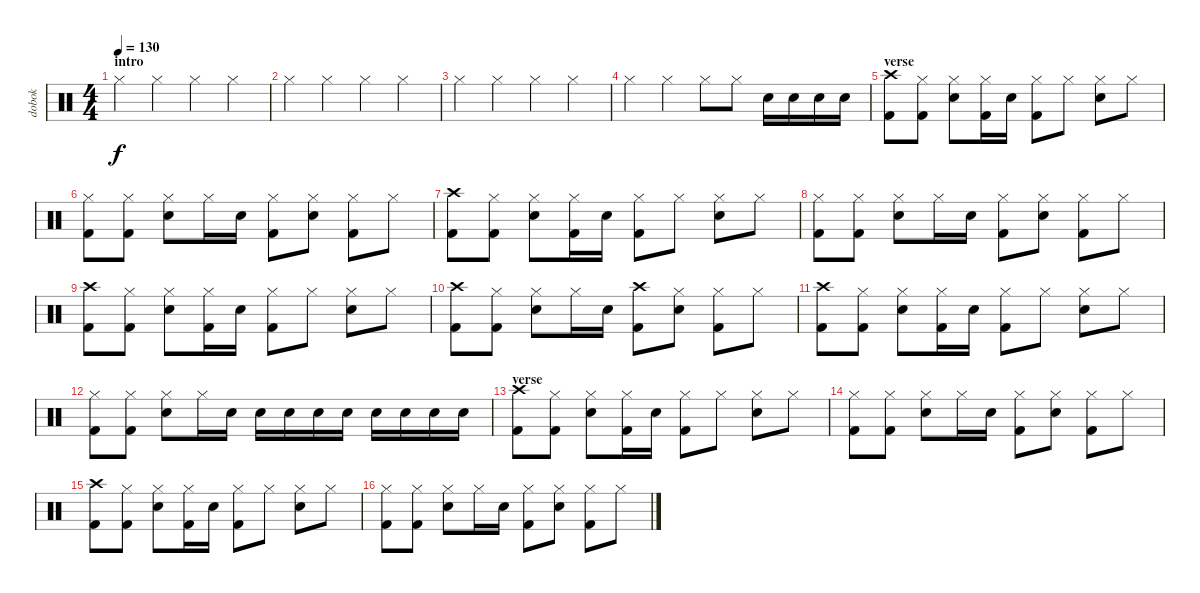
\track ("dobok" "dobok") {instrument percussion}
\staff {score}
\articulation defaults
\ts (4 4)
\section ("" "intro")
\tempo 130
\clef neutral
\ks c "Hi-Hat (closed)".4{dy f} "Hi-Hat (closed)".4 "Hi-Hat (closed)".4 "Hi-Hat (closed)".4
|
"Hi-Hat (closed)".4 "Hi-Hat (closed)".4 "Hi-Hat (closed)".4 "Hi-Hat (closed)".4 |
"Hi-Hat (closed)".4 "Hi-Hat (closed)".4 "Hi-Hat (closed)".4 "Hi-Hat (closed)".4 |
"Hi-Hat (closed)".4 "Hi-Hat (closed)".4 "Hi-Hat (closed)".8 "Hi-Hat (closed)".8 "Snare (hit) 2".16 "Snare (hit) 2".16 "Snare (hit) 2".16 "Snare (hit) 2".16 |
\section ("" "verse")
("Crash high (hit)" "Kick (hit) 2").8 ("Hi-Hat (closed)" "Kick (hit) 2").8 ("Hi-Hat (closed)" "Snare (hit) 2").8 ("Hi-Hat (closed)" "Kick (hit) 2").16 "Snare (hit) 2".16 ("Hi-Hat (closed)" "Kick (hit) 2").8 "Hi-Hat (closed)".8 ("Hi-Hat (closed)" "Snare (hit) 2").8 "Hi-Hat (closed)".8 |
("Hi-Hat (closed)" "Kick (hit) 2").8 ("Hi-Hat (closed)" "Kick (hit) 2").8 ("Hi-Hat (closed)" "Snare (hit) 2").8 "Hi-Hat (closed)".16 "Snare (hit) 2".16 ("Hi-Hat (closed)" "Kick (hit) 2").8 ("Hi-Hat (closed)" "Snare (hit) 2").8 ("Hi-Hat (closed)" "Kick (hit) 2").8 "Hi-Hat (closed)".8 |
("Crash high (hit)" "Kick (hit) 2").8 ("Hi-Hat (closed)" "Kick (hit) 2").8 ("Hi-Hat (closed)" "Snare (hit) 2").8 ("Hi-Hat (closed)" "Kick (hit) 2").16 "Snare (hit) 2".16 ("Hi-Hat (closed)" "Kick (hit) 2").8 "Hi-Hat (closed)".8 ("Hi-Hat (closed)" "Snare (hit) 2").8 "Hi-Hat (closed)".8 |
("Hi-Hat (closed)" "Kick (hit) 2").8 ("Hi-Hat (closed)" "Kick (hit) 2").8 ("Hi-Hat (closed)" "Snare (hit) 2").8 "Hi-Hat (closed)".16 "Snare (hit) 2".16 ("Hi-Hat (closed)" "Kick (hit) 2").8 ("Hi-Hat (closed)" "Snare (hit) 2").8 ("Hi-Hat (closed)" "Kick (hit) 2").8 "Hi-Hat (closed)".8 |
("Crash high (hit)" "Kick (hit) 2").8 ("Hi-Hat (closed)" "Kick (hit) 2").8 ("Hi-Hat (closed)" "Snare (hit) 2").8 ("Hi-Hat (closed)" "Kick (hit) 2").16 "Snare (hit) 2".16 ("Hi-Hat (closed)" "Kick (hit) 2").8 "Hi-Hat (closed)".8 ("Hi-Hat (closed)" "Snare (hit) 2").8 "Hi-Hat (closed)".8 |
("Crash high (hit)" "Kick (hit) 2").8 ("Hi-Hat (closed)" "Kick (hit) 2").8 ("Hi-Hat (closed)" "Snare (hit) 2").8 "Hi-Hat (closed)".16 "Snare (hit) 2".16 ("Crash high (hit)" "Kick (hit) 2").8 ("Hi-Hat (closed)" "Snare (hit) 2").8 ("Hi-Hat (closed)" "Kick (hit) 2").8 "Hi-Hat (closed)".8 |
("Crash high (hit)" "Kick (hit) 2").8 ("Hi-Hat (closed)" "Kick (hit) 2").8 ("Hi-Hat (closed)" "Snare (hit) 2").8 ("Hi-Hat (closed)" "Kick (hit) 2").16 "Snare (hit) 2".16 ("Hi-Hat (closed)" "Kick (hit) 2").8 "Hi-Hat (closed)".8 ("Hi-Hat (closed)" "Snare (hit) 2").8 "Hi-Hat (closed)".8 |
("Hi-Hat (closed)" "Kick (hit) 2").8 ("Hi-Hat (closed)" "Kick (hit) 2").8 ("Hi-Hat (closed)" "Snare (hit) 2").8 "Hi-Hat (closed)".16 "Snare (hit) 2".16 "Snare (hit) 2".16 "Snare (hit) 2".16 "Snare (hit) 2".16 "Snare (hit) 2".16 "Snare (hit) 2".16 "Snare (hit) 2".16 "Snare (hit) 2".16 "Snare (hit) 2".16 |
\section ("" "verse")
("Crash high (hit)" "Kick (hit) 2").8 ("Hi-Hat (closed)" "Kick (hit) 2").8 ("Hi-Hat (closed)" "Snare (hit) 2").8 ("Hi-Hat (closed)" "Kick (hit) 2").16 "Snare (hit) 2".16 ("Hi-Hat (closed)" "Kick (hit) 2").8 "Hi-Hat (closed)".8 ("Hi-Hat (closed)" "Snare (hit) 2").8 "Hi-Hat (closed)".8 |
("Hi-Hat (closed)" "Kick (hit) 2").8 ("Hi-Hat (closed)" "Kick (hit) 2").8 ("Hi-Hat (closed)" "Snare (hit) 2").8 "Hi-Hat (closed)".16 "Snare (hit) 2".16 ("Hi-Hat (closed)" "Kick (hit) 2").8 ("Hi-Hat (closed)" "Snare (hit) 2").8 ("Hi-Hat (closed)" "Kick (hit) 2").8 "Hi-Hat (closed)".8 |
("Crash high (hit)" "Kick (hit) 2").8 ("Hi-Hat (closed)" "Kick (hit) 2").8 ("Hi-Hat (closed)" "Snare (hit) 2").8 ("Hi-Hat (closed)" "Kick (hit) 2").16 "Snare (hit) 2".16 ("Hi-Hat (closed)" "Kick (hit) 2").8 "Hi-Hat (closed)".8 ("Hi-Hat (closed)" "Snare (hit) 2").8 "Hi-Hat (closed)".8 |
("Hi-Hat (closed)" "Kick (hit) 2").8 ("Hi-Hat (closed)" "Kick (hit) 2").8 ("Hi-Hat (closed)" "Snare (hit) 2").8 "Hi-Hat (closed)".16 "Snare (hit) 2".16 ("Hi-Hat (closed)" "Kick (hit) 2").8 ("Hi-Hat (closed)" "Snare (hit) 2").8 ("Hi-Hat (closed)" "Kick (hit) 2").8 "Hi-Hat (closed)".8
